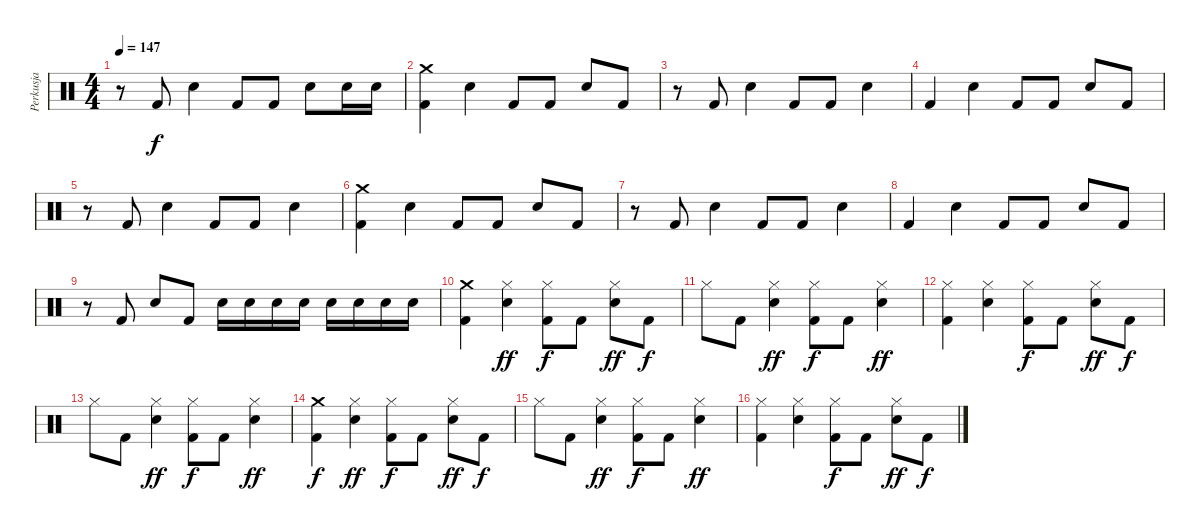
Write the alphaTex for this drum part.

\track ("Perkusja" "Perkusja") {instrument percussion}
\staff {score}
\articulation defaults
\ts (4 4)
\tempo 147
\clef neutral
\ks c
r.8{dy f} "Kick (hit) 2".8 "Electric Snare (hit)".4 "Kick (hit) 2".8 "Kick (hit) 2".8 "Electric Snare (hit)".8 "Electric Snare (hit)".16 "Electric Snare (hit)".16 |
("Crash medium (hit)" "Kick (hit) 2").4 "Electric Snare (hit)".4 "Kick (hit) 2".8 "Kick (hit) 2".8 "Electric Snare (hit)".8 "Kick (hit) 2".8 |
r.8 "Kick (hit) 2".8 "Electric Snare (hit)".4 "Kick (hit) 2".8 "Kick (hit) 2".8 "Electric Snare (hit)".4 |
"Kick (hit) 2".4 "Electric Snare (hit)".4 "Kick (hit) 2".8 "Kick (hit) 2".8 "Electric Snare (hit)".8 "Kick (hit) 2".8 |
r.8 "Kick (hit) 2".8 "Electric Snare (hit)".4 "Kick (hit) 2".8 "Kick (hit) 2".8 "Electric Snare (hit)".4 |
("Crash medium (hit)" "Kick (hit) 2").4 "Electric Snare (hit)".4 "Kick (hit) 2".8 "Kick (hit) 2".8 "Electric Snare (hit)".8 "Kick (hit) 2".8 |
r.8 "Kick (hit) 2".8 "Electric Snare (hit)".4 "Kick (hit) 2".8 "Kick (hit) 2".8 "Electric Snare (hit)".4 |
"Kick (hit) 2".4 "Electric Snare (hit)".4 "Kick (hit) 2".8 "Kick (hit) 2".8 "Electric Snare (hit)".8 "Kick (hit) 2".8 |
r.8 "Kick (hit) 2".8 "Electric Snare (hit)".8 "Kick (hit) 2".8 "Electric Snare (hit)".16 "Electric Snare (hit)".16 "Electric Snare (hit)".16 "Electric Snare (hit)".16 "Electric Snare (hit)".16 "Electric Snare (hit)".16 "Electric Snare (hit)".16 "Electric Snare (hit)".16 |
("Crash medium (hit)" "Kick (hit) 2").4 ("Hi-Hat (closed)" "Electric Snare (hit)").4{dy ff} ("Hi-Hat (closed)" "Kick (hit) 2").8{dy f} "Kick (hit) 2".8 ("Hi-Hat (closed)" "Electric Snare (hit)").8{dy ff} "Kick (hit) 2".8{dy f} |
"Hi-Hat (closed)".8 "Kick (hit) 2".8 ("Hi-Hat (closed)" "Electric Snare (hit)").4{dy ff} ("Hi-Hat (closed)" "Kick (hit) 2").8{dy f} "Kick (hit) 2".8 ("Hi-Hat (closed)" "Electric Snare (hit)").4{dy ff} |
("Hi-Hat (closed)" "Kick (hit) 2").4 ("Hi-Hat (closed)" "Electric Snare (hit)").4 ("Hi-Hat (closed)" "Kick (hit) 2").8{dy f} "Kick (hit) 2".8 ("Hi-Hat (closed)" "Electric Snare (hit)").8{dy ff} "Kick (hit) 2".8{dy f} |
"Hi-Hat (closed)".8 "Kick (hit) 2".8 ("Hi-Hat (closed)" "Electric Snare (hit)").4{dy ff} ("Hi-Hat (closed)" "Kick (hit) 2").8{dy f} "Kick (hit) 2".8 ("Hi-Hat (closed)" "Electric Snare (hit)").4{dy ff} |
("Crash medium (hit)" "Kick (hit) 2").4{dy f} ("Hi-Hat (closed)" "Electric Snare (hit)").4{dy ff} ("Hi-Hat (closed)" "Kick (hit) 2").8{dy f} "Kick (hit) 2".8 ("Hi-Hat (closed)" "Electric Snare (hit)").8{dy ff} "Kick (hit) 2".8{dy f} |
"Hi-Hat (closed)".8 "Kick (hit) 2".8 ("Hi-Hat (closed)" "Electric Snare (hit)").4{dy ff} ("Hi-Hat (closed)" "Kick (hit) 2").8{dy f} "Kick (hit) 2".8 ("Hi-Hat (closed)" "Electric Snare (hit)").4{dy ff} |
("Hi-Hat (closed)" "Kick (hit) 2").4 ("Hi-Hat (closed)" "Electric Snare (hit)").4 ("Hi-Hat (closed)" "Kick (hit) 2").8{dy f} "Kick (hit) 2".8 ("Hi-Hat (closed)" "Electric Snare (hit)").8{dy ff} "Kick (hit) 2".8{dy f}
